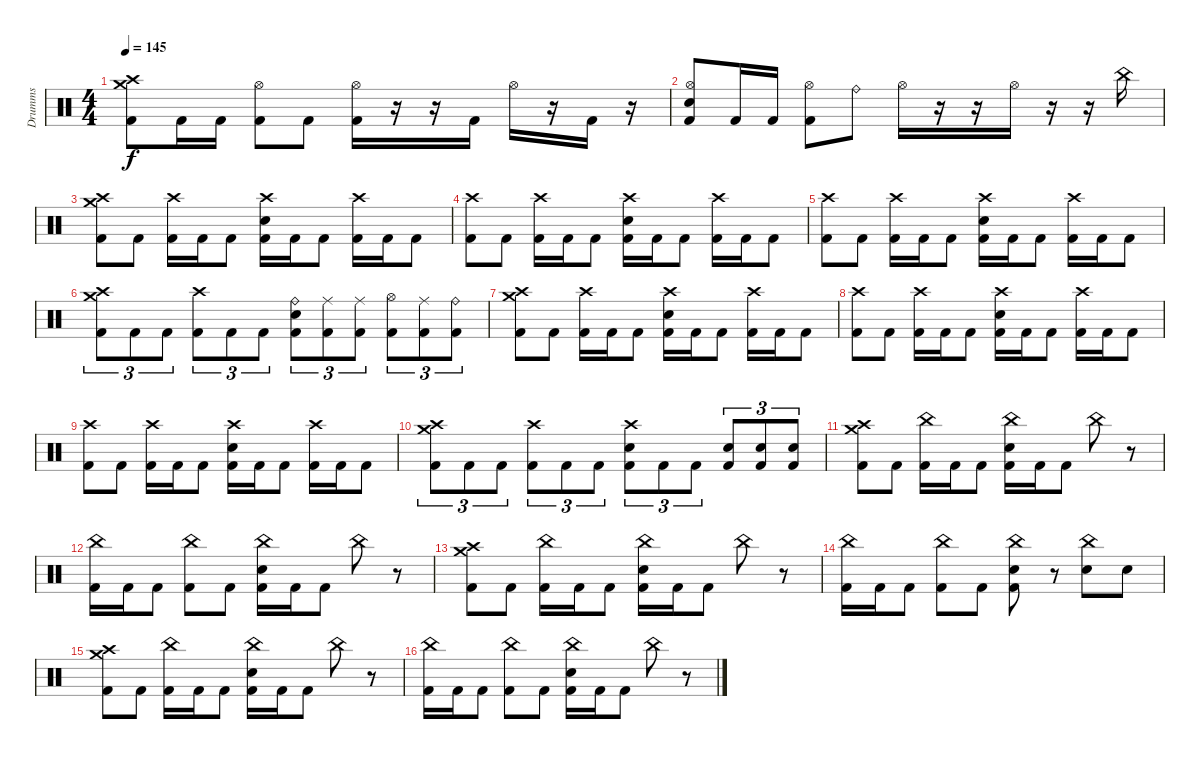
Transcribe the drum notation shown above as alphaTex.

\track ("Drumms" "Drumms") {instrument percussion}
\staff {score}
\articulation defaults
\ts (4 4)
\tempo 145
\clef neutral
\ks c
("Crash high (hit)" "Crash medium (hit)" "Kick (hit) 2").8{dy f} "Kick (hit) 2".16 "Kick (hit) 2".16 ("Hi-Hat (open)" "Kick (hit) 2").8 "Kick (hit) 2".8 ("Hi-Hat (open)" "Kick (hit) 2").16 r.16 r.16 "Kick (hit) 2".16 "Hi-Hat (open)".16 r.16 "Kick (hit) 2".16 r.16 |
("Hi-Hat (open)" "Electric Snare (hit)" "Kick (hit) 2").8 "Kick (hit) 2".16 "Kick (hit) 2".16 ("Hi-Hat (open)" "Kick (hit) 2").8 "Ride (bell)".8 "Hi-Hat (open)".16 r.16 r.16 "Hi-Hat (open)".16 r.16 r.16 "China (hit)".16 |
("Crash high (hit)" "Crash medium (hit)" "Kick (hit) 2").8 "Kick (hit) 2".8 ("Crash high (hit)" "Kick (hit) 2").16 "Kick (hit) 2".16 "Kick (hit) 2".8 ("Crash high (hit)" "Electric Snare (hit)" "Kick (hit) 2").16 "Kick (hit) 2".16 "Kick (hit) 2".8 ("Crash high (hit)" "Kick (hit) 2").16 "Kick (hit) 2".16 "Kick (hit) 2".8 |
("Crash high (hit)" "Kick (hit) 2").8 "Kick (hit) 2".8 ("Crash high (hit)" "Kick (hit) 2").16 "Kick (hit) 2".16 "Kick (hit) 2".8 ("Crash high (hit)" "Electric Snare (hit)" "Kick (hit) 2").16 "Kick (hit) 2".16 "Kick (hit) 2".8 ("Crash high (hit)" "Kick (hit) 2").16 "Kick (hit) 2".16 "Kick (hit) 2".8 |
("Crash high (hit)" "Kick (hit) 2").8 "Kick (hit) 2".8 ("Crash high (hit)" "Kick (hit) 2").16 "Kick (hit) 2".16 "Kick (hit) 2".8 ("Crash high (hit)" "Electric Snare (hit)" "Kick (hit) 2").16 "Kick (hit) 2".16 "Kick (hit) 2".8 ("Crash high (hit)" "Kick (hit) 2").16 "Kick (hit) 2".16 "Kick (hit) 2".8 |
("Crash medium (hit)" "Crash high (hit)" "Kick (hit) 2").8{tu (3 2)} "Kick (hit) 2".8{tu (3 2)} "Kick (hit) 2".8{tu (3 2)} ("Crash high (hit)" "Kick (hit) 2").8{tu (3 2)} "Kick (hit) 2".8{tu (3 2)} "Kick (hit) 2".8{tu (3 2)} ("Ride (bell)" "Electric Snare (hit)" "Kick (hit) 2").8{tu (3 2)} ("Ride (middle)" "Kick (hit) 2").8{tu (3 2)} ("Ride (middle)" "Kick (hit) 2").8{tu (3 2)} ("Hi-Hat (open)" "Kick (hit) 2").8{tu (3 2)} ("Ride (middle)" "Kick (hit) 2").8{tu (3 2)} ("Ride (bell)" "Kick (hit) 2").8{tu (3 2)} |
("Crash high (hit)" "Crash medium (hit)" "Kick (hit) 2").8 "Kick (hit) 2".8 ("Crash high (hit)" "Kick (hit) 2").16 "Kick (hit) 2".16 "Kick (hit) 2".8 ("Crash high (hit)" "Electric Snare (hit)" "Kick (hit) 2").16 "Kick (hit) 2".16 "Kick (hit) 2".8 ("Crash high (hit)" "Kick (hit) 2").16 "Kick (hit) 2".16 "Kick (hit) 2".8 |
("Crash high (hit)" "Kick (hit) 2").8 "Kick (hit) 2".8 ("Crash high (hit)" "Kick (hit) 2").16 "Kick (hit) 2".16 "Kick (hit) 2".8 ("Crash high (hit)" "Electric Snare (hit)" "Kick (hit) 2").16 "Kick (hit) 2".16 "Kick (hit) 2".8 ("Crash high (hit)" "Kick (hit) 2").16 "Kick (hit) 2".16 "Kick (hit) 2".8 |
("Crash high (hit)" "Kick (hit) 2").8 "Kick (hit) 2".8 ("Crash high (hit)" "Kick (hit) 2").16 "Kick (hit) 2".16 "Kick (hit) 2".8 ("Crash high (hit)" "Electric Snare (hit)" "Kick (hit) 2").16 "Kick (hit) 2".16 "Kick (hit) 2".8 ("Crash high (hit)" "Kick (hit) 2").16 "Kick (hit) 2".16 "Kick (hit) 2".8 |
("Crash medium (hit)" "Crash high (hit)" "Kick (hit) 2").8{tu (3 2)} "Kick (hit) 2".8{tu (3 2)} "Kick (hit) 2".8{tu (3 2)} ("Crash high (hit)" "Kick (hit) 2").8{tu (3 2)} "Kick (hit) 2".8{tu (3 2)} "Kick (hit) 2".8{tu (3 2)} ("Crash high (hit)" "Electric Snare (hit)" "Kick (hit) 2").8{tu (3 2)} "Kick (hit) 2".8{tu (3 2)} "Kick (hit) 2".8{tu (3 2)} ("Electric Snare (hit)" "Kick (hit) 2").8{tu (3 2)} ("Electric Snare (hit)" "Kick (hit) 2").8{tu (3 2)} ("Electric Snare (hit)" "Kick (hit) 2").8{tu (3 2)} |
("Crash high (hit)" "Crash medium (hit)" "Kick (hit) 2").8 "Kick (hit) 2".8 ("China (hit)" "Kick (hit) 2").16 "Kick (hit) 2".16 "Kick (hit) 2".8 ("China (hit)" "Electric Snare (hit)" "Kick (hit) 2").16 "Kick (hit) 2".16 "Kick (hit) 2".8 "China (hit)".8 r.8 |
("China (hit)" "Kick (hit) 2").16 "Kick (hit) 2".16 "Kick (hit) 2".8 ("China (hit)" "Kick (hit) 2").8 "Kick (hit) 2".8 ("China (hit)" "Electric Snare (hit)" "Kick (hit) 2").16 "Kick (hit) 2".16 "Kick (hit) 2".8 "China (hit)".8 r.8 |
("Crash high (hit)" "Crash medium (hit)" "Kick (hit) 2").8 "Kick (hit) 2".8 ("China (hit)" "Kick (hit) 2").16 "Kick (hit) 2".16 "Kick (hit) 2".8 ("China (hit)" "Electric Snare (hit)" "Kick (hit) 2").16 "Kick (hit) 2".16 "Kick (hit) 2".8 "China (hit)".8 r.8 |
("China (hit)" "Kick (hit) 2").16 "Kick (hit) 2".16 "Kick (hit) 2".8 ("China (hit)" "Kick (hit) 2").8 "Kick (hit) 2".8 ("China (hit)" "Electric Snare (hit)" "Kick (hit) 2").8 r.8 ("China (hit)" "Electric Snare (hit)").8 "Electric Snare (hit)".8 |
("Crash high (hit)" "Crash medium (hit)" "Kick (hit) 2").8 "Kick (hit) 2".8 ("China (hit)" "Kick (hit) 2").16 "Kick (hit) 2".16 "Kick (hit) 2".8 ("China (hit)" "Electric Snare (hit)" "Kick (hit) 2").16 "Kick (hit) 2".16 "Kick (hit) 2".8 "China (hit)".8 r.8 |
("China (hit)" "Kick (hit) 2").16 "Kick (hit) 2".16 "Kick (hit) 2".8 ("China (hit)" "Kick (hit) 2").8 "Kick (hit) 2".8 ("China (hit)" "Electric Snare (hit)" "Kick (hit) 2").16 "Kick (hit) 2".16 "Kick (hit) 2".8 "China (hit)".8 r.8
